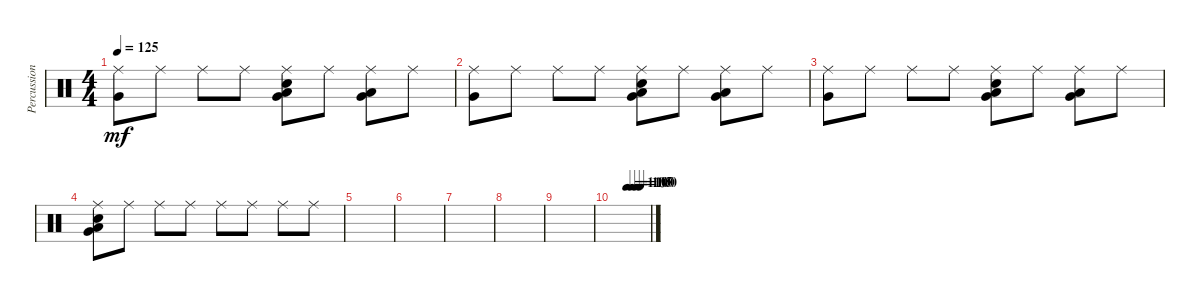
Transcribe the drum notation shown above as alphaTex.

\track ("Percussion" "Percussion") {instrument percussion}
\staff {score}
\articulation defaults
\ts (4 4)
\tempo 125
\clef neutral
\ks c
("Very Low Tom (hit)" "Ride (middle)").8{dy mf} "Ride (middle)".8 "Ride (middle)".8 "Ride (middle)".8 ("Very Low Tom (hit)" "Snare (hit) 2" "Low Floor Tom (hit)" "Ride (middle)").8 "Ride (middle)".8 ("Very Low Tom (hit)" "Low Floor Tom (hit)" "Ride (middle)").8 "Ride (middle)".8 |
("Very Low Tom (hit)" "Ride (middle)").8 "Ride (middle)".8 "Ride (middle)".8 "Ride (middle)".8 ("Very Low Tom (hit)" "Snare (hit) 2" "Low Floor Tom (hit)" "Ride (middle)").8 "Ride (middle)".8 ("Very Low Tom (hit)" "Low Floor Tom (hit)" "Ride (middle)").8 "Ride (middle)".8 |
("Very Low Tom (hit)" "Ride (middle)").8 "Ride (middle)".8 "Ride (middle)".8 "Ride (middle)".8 ("Very Low Tom (hit)" "Snare (hit) 2" "Low Floor Tom (hit)" "Ride (middle)").8 "Ride (middle)".8 ("Very Low Tom (hit)" "Low Floor Tom (hit)" "Ride (middle)").8 "Ride (middle)".8 |
("Very Low Tom (hit)" "Snare (hit) 2" "Low Floor Tom (hit)" "Ride (middle)").8 "Ride (middle)".8 "Ride (middle)".8 "Ride (middle)".8 "Ride (middle)".8 "Ride (middle)".8 "Ride (middle)".8 "Ride (middle)".8 |
|
|
|
|
|
\tempo (110 0.375)
\tempo (105 0.5)
\tempo (100 0.625)
\tempo (90 0.75)
